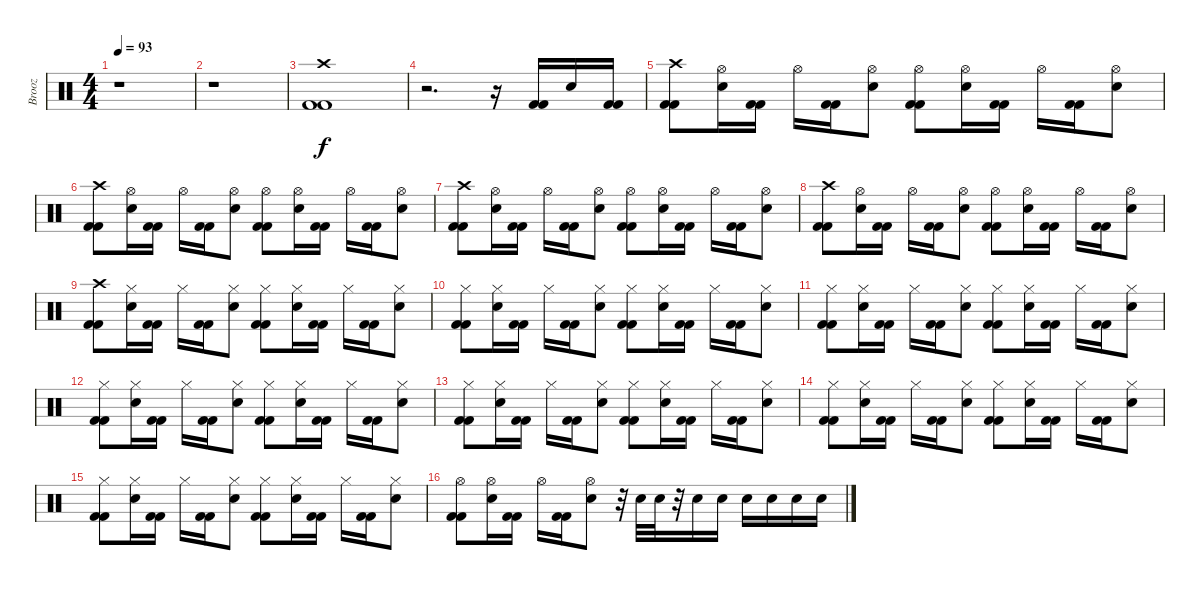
\track ("Brooz" "Brooz") {instrument percussion}
\staff {score}
\articulation defaults
\ts (4 4)
\tempo 93
\clef neutral
\ks c
r.1{dy f} |
r.1 |
("Crash high (hit)" "Kick (hit) 2" "Kick (hit) 2").1 |
r.2{d} r.16 ("Kick (hit) 2" "Kick (hit) 2").16 "Electric Snare (hit)".16 ("Kick (hit) 2" "Kick (hit) 2").16 |
("Kick (hit) 2" "Crash high (hit)" "Kick (hit) 2").8 ("Hi-Hat (open)" "Electric Snare (hit)").16 ("Kick (hit) 2" "Kick (hit) 2").16 "Hi-Hat (open)".16 ("Kick (hit) 2" "Kick (hit) 2").16 ("Hi-Hat (open)" "Electric Snare (hit)").8 ("Kick (hit) 2" "Hi-Hat (open)" "Kick (hit) 2").8 ("Hi-Hat (open)" "Electric Snare (hit)").16 ("Kick (hit) 2" "Kick (hit) 2").16 "Hi-Hat (open)".16 ("Kick (hit) 2" "Kick (hit) 2").16 ("Hi-Hat (open)" "Electric Snare (hit)").8 |
("Kick (hit) 2" "Crash high (hit)" "Kick (hit) 2").8 ("Hi-Hat (open)" "Electric Snare (hit)").16 ("Kick (hit) 2" "Kick (hit) 2").16 "Hi-Hat (open)".16 ("Kick (hit) 2" "Kick (hit) 2").16 ("Hi-Hat (open)" "Electric Snare (hit)").8 ("Kick (hit) 2" "Hi-Hat (open)" "Kick (hit) 2").8 ("Hi-Hat (open)" "Electric Snare (hit)").16 ("Kick (hit) 2" "Kick (hit) 2").16 "Hi-Hat (open)".16 ("Kick (hit) 2" "Kick (hit) 2").16 ("Hi-Hat (open)" "Electric Snare (hit)").8 |
("Kick (hit) 2" "Crash high (hit)" "Kick (hit) 2").8 ("Hi-Hat (open)" "Electric Snare (hit)").16 ("Kick (hit) 2" "Kick (hit) 2").16 "Hi-Hat (open)".16 ("Kick (hit) 2" "Kick (hit) 2").16 ("Hi-Hat (open)" "Electric Snare (hit)").8 ("Kick (hit) 2" "Hi-Hat (open)" "Kick (hit) 2").8 ("Hi-Hat (open)" "Electric Snare (hit)").16 ("Kick (hit) 2" "Kick (hit) 2").16 "Hi-Hat (open)".16 ("Kick (hit) 2" "Kick (hit) 2").16 ("Hi-Hat (open)" "Electric Snare (hit)").8 |
("Kick (hit) 2" "Crash high (hit)" "Kick (hit) 2").8 ("Hi-Hat (open)" "Electric Snare (hit)").16 ("Kick (hit) 2" "Kick (hit) 2").16 "Hi-Hat (open)".16 ("Kick (hit) 2" "Kick (hit) 2").16 ("Hi-Hat (open)" "Electric Snare (hit)").8 ("Kick (hit) 2" "Hi-Hat (open)" "Kick (hit) 2").8 ("Hi-Hat (open)" "Electric Snare (hit)").16 ("Kick (hit) 2" "Kick (hit) 2").16 "Hi-Hat (open)".16 ("Kick (hit) 2" "Kick (hit) 2").16 ("Hi-Hat (open)" "Electric Snare (hit)").8 |
("Kick (hit) 2" "Crash high (hit)" "Kick (hit) 2").8 ("Hi-Hat (closed)" "Electric Snare (hit)").16 ("Kick (hit) 2" "Kick (hit) 2").16 "Hi-Hat (closed)".16 ("Kick (hit) 2" "Kick (hit) 2").16 ("Hi-Hat (closed)" "Electric Snare (hit)").8 ("Kick (hit) 2" "Hi-Hat (closed)" "Kick (hit) 2").8 ("Hi-Hat (closed)" "Electric Snare (hit)").16 ("Kick (hit) 2" "Kick (hit) 2").16 "Hi-Hat (closed)".16 ("Kick (hit) 2" "Kick (hit) 2").16 ("Hi-Hat (closed)" "Electric Snare (hit)").8 |
("Kick (hit) 2" "Hi-Hat (closed)" "Kick (hit) 2").8 ("Hi-Hat (closed)" "Electric Snare (hit)").16 ("Kick (hit) 2" "Kick (hit) 2").16 "Hi-Hat (closed)".16 ("Kick (hit) 2" "Kick (hit) 2").16 ("Hi-Hat (closed)" "Electric Snare (hit)").8 ("Kick (hit) 2" "Hi-Hat (closed)" "Kick (hit) 2").8 ("Hi-Hat (closed)" "Electric Snare (hit)").16 ("Kick (hit) 2" "Kick (hit) 2").16 "Hi-Hat (closed)".16 ("Kick (hit) 2" "Kick (hit) 2").16 ("Hi-Hat (closed)" "Electric Snare (hit)").8 |
("Kick (hit) 2" "Hi-Hat (closed)" "Kick (hit) 2").8 ("Hi-Hat (closed)" "Electric Snare (hit)").16 ("Kick (hit) 2" "Kick (hit) 2").16 "Hi-Hat (closed)".16 ("Kick (hit) 2" "Kick (hit) 2").16 ("Hi-Hat (closed)" "Electric Snare (hit)").8 ("Kick (hit) 2" "Hi-Hat (closed)" "Kick (hit) 2").8 ("Hi-Hat (closed)" "Electric Snare (hit)").16 ("Kick (hit) 2" "Kick (hit) 2").16 "Hi-Hat (closed)".16 ("Kick (hit) 2" "Kick (hit) 2").16 ("Hi-Hat (closed)" "Electric Snare (hit)").8 |
("Kick (hit) 2" "Hi-Hat (closed)" "Kick (hit) 2").8 ("Hi-Hat (closed)" "Electric Snare (hit)").16 ("Kick (hit) 2" "Kick (hit) 2").16 "Hi-Hat (closed)".16 ("Kick (hit) 2" "Kick (hit) 2").16 ("Hi-Hat (closed)" "Electric Snare (hit)").8 ("Kick (hit) 2" "Hi-Hat (closed)" "Kick (hit) 2").8 ("Hi-Hat (closed)" "Electric Snare (hit)").16 ("Kick (hit) 2" "Kick (hit) 2").16 "Hi-Hat (closed)".16 ("Kick (hit) 2" "Kick (hit) 2").16 ("Hi-Hat (closed)" "Electric Snare (hit)").8 |
("Kick (hit) 2" "Hi-Hat (closed)" "Kick (hit) 2").8 ("Hi-Hat (closed)" "Electric Snare (hit)").16 ("Kick (hit) 2" "Kick (hit) 2").16 "Hi-Hat (closed)".16 ("Kick (hit) 2" "Kick (hit) 2").16 ("Hi-Hat (closed)" "Electric Snare (hit)").8 ("Kick (hit) 2" "Hi-Hat (closed)" "Kick (hit) 2").8 ("Hi-Hat (closed)" "Electric Snare (hit)").16 ("Kick (hit) 2" "Kick (hit) 2").16 "Hi-Hat (closed)".16 ("Kick (hit) 2" "Kick (hit) 2").16 ("Hi-Hat (closed)" "Electric Snare (hit)").8 |
("Kick (hit) 2" "Hi-Hat (closed)" "Kick (hit) 2").8 ("Hi-Hat (closed)" "Electric Snare (hit)").16 ("Kick (hit) 2" "Kick (hit) 2").16 "Hi-Hat (closed)".16 ("Kick (hit) 2" "Kick (hit) 2").16 ("Hi-Hat (closed)" "Electric Snare (hit)").8 ("Kick (hit) 2" "Hi-Hat (closed)" "Kick (hit) 2").8 ("Hi-Hat (closed)" "Electric Snare (hit)").16 ("Kick (hit) 2" "Kick (hit) 2").16 "Hi-Hat (closed)".16 ("Kick (hit) 2" "Kick (hit) 2").16 ("Hi-Hat (closed)" "Electric Snare (hit)").8 |
("Kick (hit) 2" "Hi-Hat (closed)" "Kick (hit) 2").8 ("Hi-Hat (closed)" "Electric Snare (hit)").16 ("Kick (hit) 2" "Kick (hit) 2").16 "Hi-Hat (closed)".16 ("Kick (hit) 2" "Kick (hit) 2").16 ("Hi-Hat (closed)" "Electric Snare (hit)").8 ("Kick (hit) 2" "Hi-Hat (closed)" "Kick (hit) 2").8 ("Hi-Hat (closed)" "Electric Snare (hit)").16 ("Kick (hit) 2" "Kick (hit) 2").16 "Hi-Hat (closed)".16 ("Kick (hit) 2" "Kick (hit) 2").16 ("Hi-Hat (closed)" "Electric Snare (hit)").8 |
("Kick (hit) 2" "Hi-Hat (open)" "Kick (hit) 2").8 ("Hi-Hat (open)" "Electric Snare (hit)").16 ("Kick (hit) 2" "Kick (hit) 2").16 "Hi-Hat (open)".16 ("Kick (hit) 2" "Kick (hit) 2").16 ("Hi-Hat (open)" "Electric Snare (hit)").8 r.32 "Electric Snare (hit)".32 "Electric Snare (hit)".32 r.32 "Electric Snare (hit)".16 "Electric Snare (hit)".16 "Electric Snare (hit)".16 "Electric Snare (hit)".16 "Electric Snare (hit)".16 "Electric Snare (hit)".16
